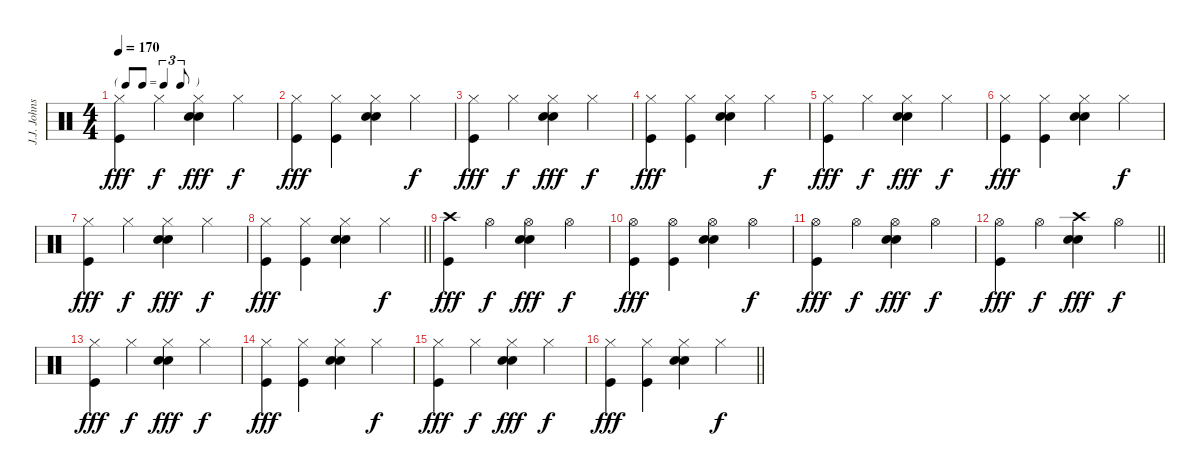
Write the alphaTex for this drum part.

\track ("J.J. Johnson" "J.J. Johns") {instrument percussion}
\staff {score}
\articulation defaults
\ts (4 4)
\tf triplet8th
\tempo 170
\clef neutral
\ks c
("Hi-Hat (closed)" "Kick (hit)").4{dy fff} "Hi-Hat (closed)".4{dy f} ("Hi-Hat (closed)" "Electric Snare (hit)" "Snare (hit) 2").4{dy fff} "Hi-Hat (closed)".4{dy f} |
("Hi-Hat (closed)" "Kick (hit)").4{dy fff} ("Hi-Hat (closed)" "Kick (hit)").4 ("Hi-Hat (closed)" "Snare (hit) 2" "Electric Snare (hit)").4 "Hi-Hat (closed)".4{dy f} |
("Hi-Hat (closed)" "Kick (hit)").4{dy fff} "Hi-Hat (closed)".4{dy f} ("Hi-Hat (closed)" "Electric Snare (hit)" "Snare (hit) 2").4{dy fff} "Hi-Hat (closed)".4{dy f} |
("Hi-Hat (closed)" "Kick (hit)").4{dy fff} ("Hi-Hat (closed)" "Kick (hit)").4 ("Hi-Hat (closed)" "Snare (hit) 2" "Electric Snare (hit)").4 "Hi-Hat (closed)".4{dy f} |
("Hi-Hat (closed)" "Kick (hit)").4{dy fff} "Hi-Hat (closed)".4{dy f} ("Hi-Hat (closed)" "Electric Snare (hit)" "Snare (hit) 2").4{dy fff} "Hi-Hat (closed)".4{dy f} |
("Hi-Hat (closed)" "Kick (hit)").4{dy fff} ("Hi-Hat (closed)" "Kick (hit)").4 ("Hi-Hat (closed)" "Snare (hit) 2" "Electric Snare (hit)").4 "Hi-Hat (closed)".4{dy f} |
("Hi-Hat (closed)" "Kick (hit)").4{dy fff} "Hi-Hat (closed)".4{dy f} ("Hi-Hat (closed)" "Electric Snare (hit)" "Snare (hit) 2").4{dy fff} "Hi-Hat (closed)".4{dy f} |
\barLineRight lightlight
("Hi-Hat (closed)" "Kick (hit)").4{dy fff} ("Hi-Hat (closed)" "Kick (hit)").4 ("Hi-Hat (closed)" "Snare (hit) 2" "Electric Snare (hit)").4 "Hi-Hat (closed)".4{dy f} |
("Crash high (hit)" "Kick (hit)").4{dy fff} "Hi-Hat (open)".4{dy f} ("Hi-Hat (open)" "Electric Snare (hit)" "Snare (hit) 2").4{dy fff} "Hi-Hat (open)".4{dy f} |
("Hi-Hat (open)" "Kick (hit)").4{dy fff} ("Hi-Hat (open)" "Kick (hit)").4 ("Hi-Hat (open)" "Snare (hit) 2" "Electric Snare (hit)").4 "Hi-Hat (open)".4{dy f} |
("Hi-Hat (open)" "Kick (hit)").4{dy fff} "Hi-Hat (open)".4{dy f} ("Hi-Hat (open)" "Electric Snare (hit)" "Snare (hit) 2").4{dy fff} "Hi-Hat (open)".4{dy f} |
\barLineRight lightlight
("Hi-Hat (open)" "Kick (hit)").4{dy fff} "Hi-Hat (open)".4{dy f} ("Crash high (hit)" "Electric Snare (hit)" "Snare (hit) 2").4{dy fff} "Hi-Hat (open)".4{dy f} |
("Hi-Hat (closed)" "Kick (hit)").4{dy fff} "Hi-Hat (closed)".4{dy f} ("Hi-Hat (closed)" "Electric Snare (hit)" "Snare (hit) 2").4{dy fff} "Hi-Hat (closed)".4{dy f} |
("Hi-Hat (closed)" "Kick (hit)").4{dy fff} ("Hi-Hat (closed)" "Kick (hit)").4 ("Hi-Hat (closed)" "Snare (hit) 2" "Electric Snare (hit)").4 "Hi-Hat (closed)".4{dy f} |
("Hi-Hat (closed)" "Kick (hit)").4{dy fff} "Hi-Hat (closed)".4{dy f} ("Hi-Hat (closed)" "Electric Snare (hit)" "Snare (hit) 2").4{dy fff} "Hi-Hat (closed)".4{dy f} |
\barLineRight lightlight
("Hi-Hat (closed)" "Kick (hit)").4{dy fff} ("Hi-Hat (closed)" "Kick (hit)").4 ("Hi-Hat (closed)" "Snare (hit) 2" "Electric Snare (hit)").4 "Hi-Hat (closed)".4{dy f}
